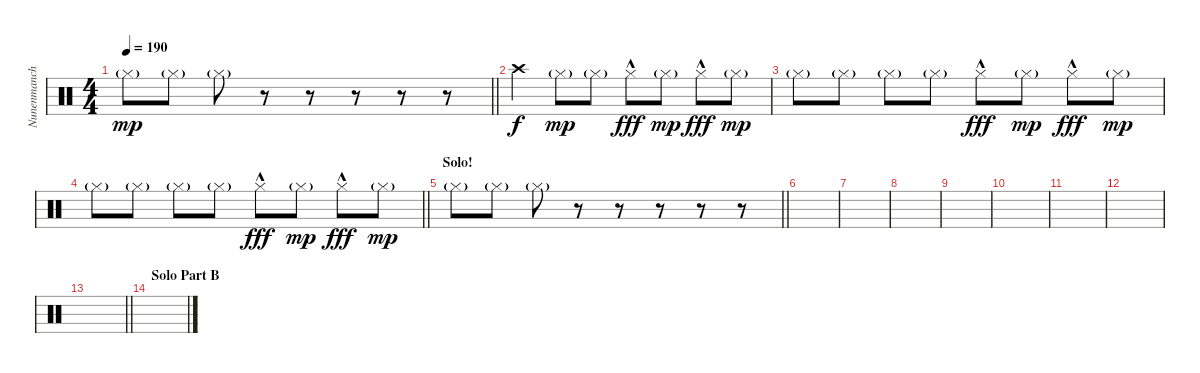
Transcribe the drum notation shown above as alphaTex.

\track ("Nunenmancher" "Nunenmanch") {instrument percussion}
\staff {score}
\articulation defaults
\ts (4 4)
\tempo 190
\clef neutral
\barLineRight lightlight
\ks c "Hi-Hat (closed)"{g}.8{dy mp} "Hi-Hat (closed)"{g}.8 "Hi-Hat (closed)"{g}.8
r.8 r.8 r.8 r.8 r.8 |
"Crash high (hit)".4{dy f} "Hi-Hat (closed)"{g}.8{dy mp} "Hi-Hat (closed)"{g}.8 "Hi-Hat (closed)"{hac}.8{dy fff} "Hi-Hat (closed)"{g}.8{dy mp} "Hi-Hat (closed)"{hac}.8{dy fff} "Hi-Hat (closed)"{g}.8{dy mp} |
"Hi-Hat (closed)"{g}.8 "Hi-Hat (closed)"{g}.8 "Hi-Hat (closed)"{g}.8 "Hi-Hat (closed)"{g}.8 "Hi-Hat (closed)"{hac}.8{dy fff} "Hi-Hat (closed)"{g}.8{dy mp} "Hi-Hat (closed)"{hac}.8{dy fff} "Hi-Hat (closed)"{g}.8{dy mp} |
\barLineRight lightlight "Hi-Hat (closed)"{g}.8 "Hi-Hat (closed)"{g}.8 "Hi-Hat (closed)"{g}.8 "Hi-Hat (closed)"{g}.8 "Hi-Hat (closed)"{hac}.8{dy fff} "Hi-Hat (closed)"{g}.8{dy mp} "Hi-Hat (closed)"{hac}.8{dy fff} "Hi-Hat (closed)"{g}.8{dy mp}
|
\section ("" "Solo!")
\barLineRight lightlight "Hi-Hat (closed)"{g}.8 "Hi-Hat (closed)"{g}.8 "Hi-Hat (closed)"{g}.8
r.8 r.8 r.8 r.8 r.8 |
|
|
|
|
|
|
|
\barLineRight lightlight
|
\section ("" "Solo Part B")
